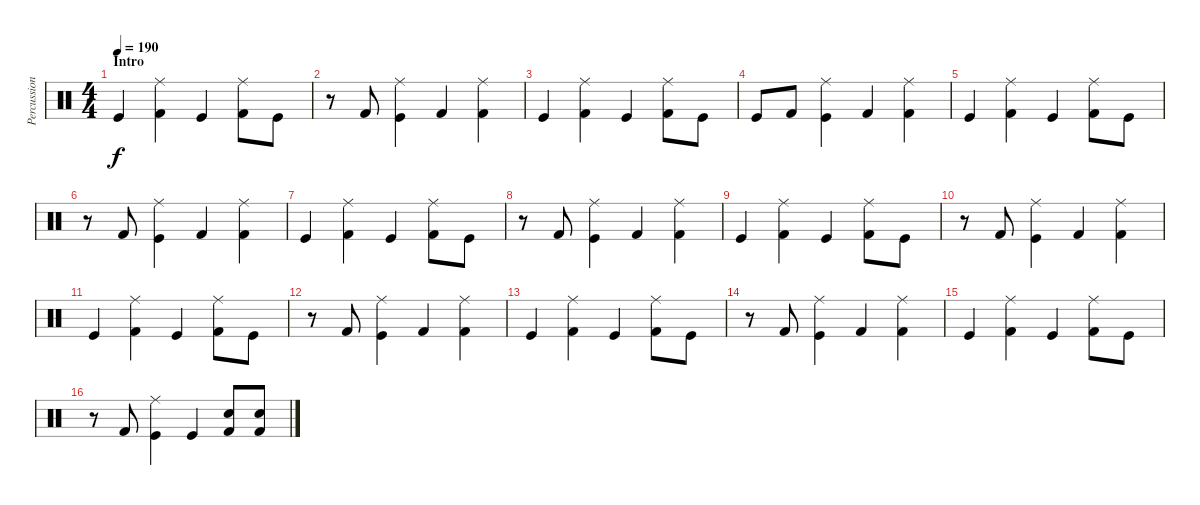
\track ("Percussion" "Percussion") {instrument percussion}
\staff {score}
\articulation defaults
\ts (4 4)
\section ("" "Intro")
\tempo 190
\clef neutral
\ks c "Kick (hit)".4{dy f}
("Ride (middle)" "Kick (hit) 2").4 "Kick (hit)".4 ("Ride (middle)" "Kick (hit) 2").8 "Kick (hit)".8 |
r.8 "Kick (hit) 2".8 ("Ride (middle)" "Kick (hit)").4 "Kick (hit) 2".4 ("Ride (middle)" "Kick (hit) 2").4 |
"Kick (hit)".4 ("Ride (middle)" "Kick (hit) 2").4 "Kick (hit)".4 ("Ride (middle)" "Kick (hit) 2").8 "Kick (hit)".8 |
"Kick (hit)".8 "Kick (hit) 2".8 ("Ride (middle)" "Kick (hit)").4 "Kick (hit) 2".4 ("Ride (middle)" "Kick (hit) 2").4 |
"Kick (hit)".4 ("Ride (middle)" "Kick (hit) 2").4 "Kick (hit)".4 ("Ride (middle)" "Kick (hit) 2").8 "Kick (hit)".8 |
r.8 "Kick (hit) 2".8 ("Ride (middle)" "Kick (hit)").4 "Kick (hit) 2".4 ("Ride (middle)" "Kick (hit) 2").4 |
"Kick (hit)".4 ("Ride (middle)" "Kick (hit) 2").4 "Kick (hit)".4 ("Ride (middle)" "Kick (hit) 2").8 "Kick (hit)".8 |
r.8 "Kick (hit) 2".8 ("Ride (middle)" "Kick (hit)").4 "Kick (hit) 2".4 ("Ride (middle)" "Kick (hit) 2").4 |
"Kick (hit)".4 ("Ride (middle)" "Kick (hit) 2").4 "Kick (hit)".4 ("Ride (middle)" "Kick (hit) 2").8 "Kick (hit)".8 |
r.8 "Kick (hit) 2".8 ("Ride (middle)" "Kick (hit)").4 "Kick (hit) 2".4 ("Ride (middle)" "Kick (hit) 2").4 |
"Kick (hit)".4 ("Ride (middle)" "Kick (hit) 2").4 "Kick (hit)".4 ("Ride (middle)" "Kick (hit) 2").8 "Kick (hit)".8 |
r.8 "Kick (hit) 2".8 ("Ride (middle)" "Kick (hit)").4 "Kick (hit) 2".4 ("Ride (middle)" "Kick (hit) 2").4 |
"Kick (hit)".4 ("Ride (middle)" "Kick (hit) 2").4 "Kick (hit)".4 ("Ride (middle)" "Kick (hit) 2").8 "Kick (hit)".8 |
r.8 "Kick (hit) 2".8 ("Ride (middle)" "Kick (hit)").4 "Kick (hit) 2".4 ("Ride (middle)" "Kick (hit) 2").4 |
"Kick (hit)".4 ("Ride (middle)" "Kick (hit) 2").4 "Kick (hit)".4 ("Ride (middle)" "Kick (hit) 2").8 "Kick (hit)".8 |
r.8 "Kick (hit) 2".8 ("Ride (middle)" "Kick (hit)").4 "Kick (hit)".4 ("Electric Snare (hit)" "Kick (hit) 2").8 ("Electric Snare (hit)" "Kick (hit) 2").8
